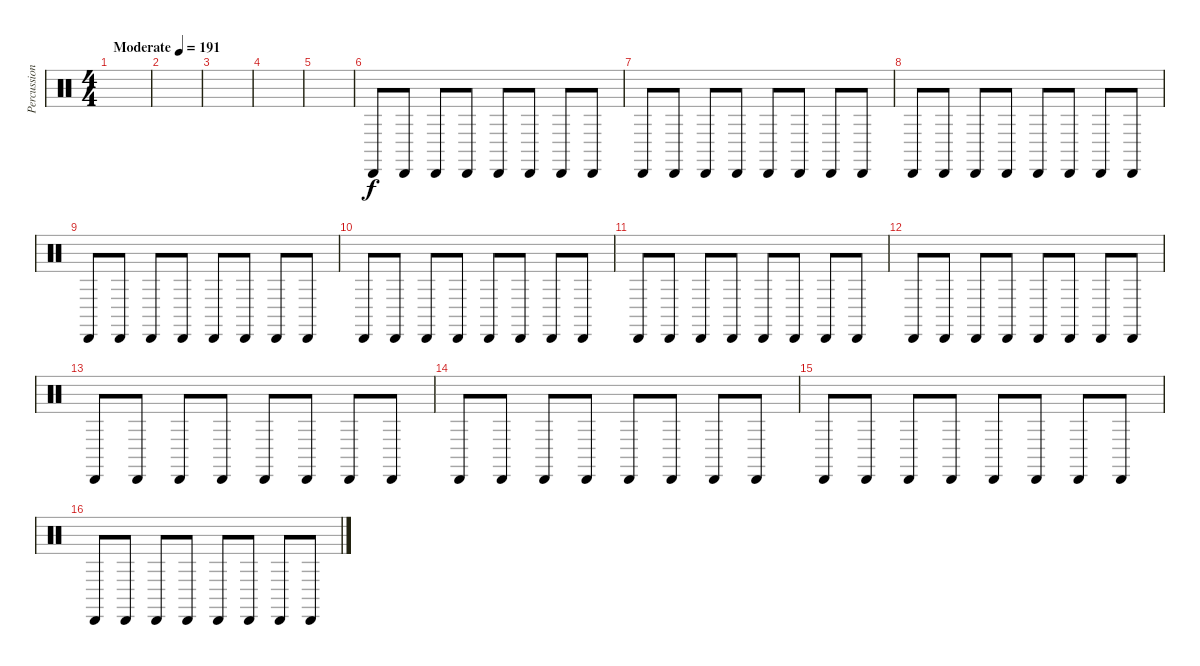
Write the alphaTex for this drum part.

\track ("Percussion" "Percussion") {instrument percussion}
\staff {score}
\articulation defaults
\ts (4 4)
\tempo (191 "Moderate")
\clef neutral
\ks c
|
|
|
|
|
"Cabasa (hit)".8 "Cabasa (hit)".8 "Cabasa (hit)".8 "Cabasa (hit)".8 "Cabasa (hit)".8 "Cabasa (hit)".8 "Cabasa (hit)".8 "Cabasa (hit)".8 |
"Cabasa (hit)".8 "Cabasa (hit)".8 "Cabasa (hit)".8 "Cabasa (hit)".8 "Cabasa (hit)".8 "Cabasa (hit)".8 "Cabasa (hit)".8 "Cabasa (hit)".8 |
"Cabasa (hit)".8 "Cabasa (hit)".8 "Cabasa (hit)".8 "Cabasa (hit)".8 "Cabasa (hit)".8 "Cabasa (hit)".8 "Cabasa (hit)".8 "Cabasa (hit)".8 |
"Cabasa (hit)".8 "Cabasa (hit)".8 "Cabasa (hit)".8 "Cabasa (hit)".8 "Cabasa (hit)".8 "Cabasa (hit)".8 "Cabasa (hit)".8 "Cabasa (hit)".8 |
"Cabasa (hit)".8 "Cabasa (hit)".8 "Cabasa (hit)".8 "Cabasa (hit)".8 "Cabasa (hit)".8 "Cabasa (hit)".8 "Cabasa (hit)".8 "Cabasa (hit)".8 |
"Cabasa (hit)".8 "Cabasa (hit)".8 "Cabasa (hit)".8 "Cabasa (hit)".8 "Cabasa (hit)".8 "Cabasa (hit)".8 "Cabasa (hit)".8 "Cabasa (hit)".8 |
"Cabasa (hit)".8 "Cabasa (hit)".8 "Cabasa (hit)".8 "Cabasa (hit)".8 "Cabasa (hit)".8 "Cabasa (hit)".8 "Cabasa (hit)".8 "Cabasa (hit)".8 |
"Cabasa (hit)".8 "Cabasa (hit)".8 "Cabasa (hit)".8 "Cabasa (hit)".8 "Cabasa (hit)".8 "Cabasa (hit)".8 "Cabasa (hit)".8 "Cabasa (hit)".8 |
"Cabasa (hit)".8 "Cabasa (hit)".8 "Cabasa (hit)".8 "Cabasa (hit)".8 "Cabasa (hit)".8 "Cabasa (hit)".8 "Cabasa (hit)".8 "Cabasa (hit)".8 |
"Cabasa (hit)".8 "Cabasa (hit)".8 "Cabasa (hit)".8 "Cabasa (hit)".8 "Cabasa (hit)".8 "Cabasa (hit)".8 "Cabasa (hit)".8 "Cabasa (hit)".8 |
"Cabasa (hit)".8 "Cabasa (hit)".8 "Cabasa (hit)".8 "Cabasa (hit)".8 "Cabasa (hit)".8 "Cabasa (hit)".8 "Cabasa (hit)".8 "Cabasa (hit)".8
